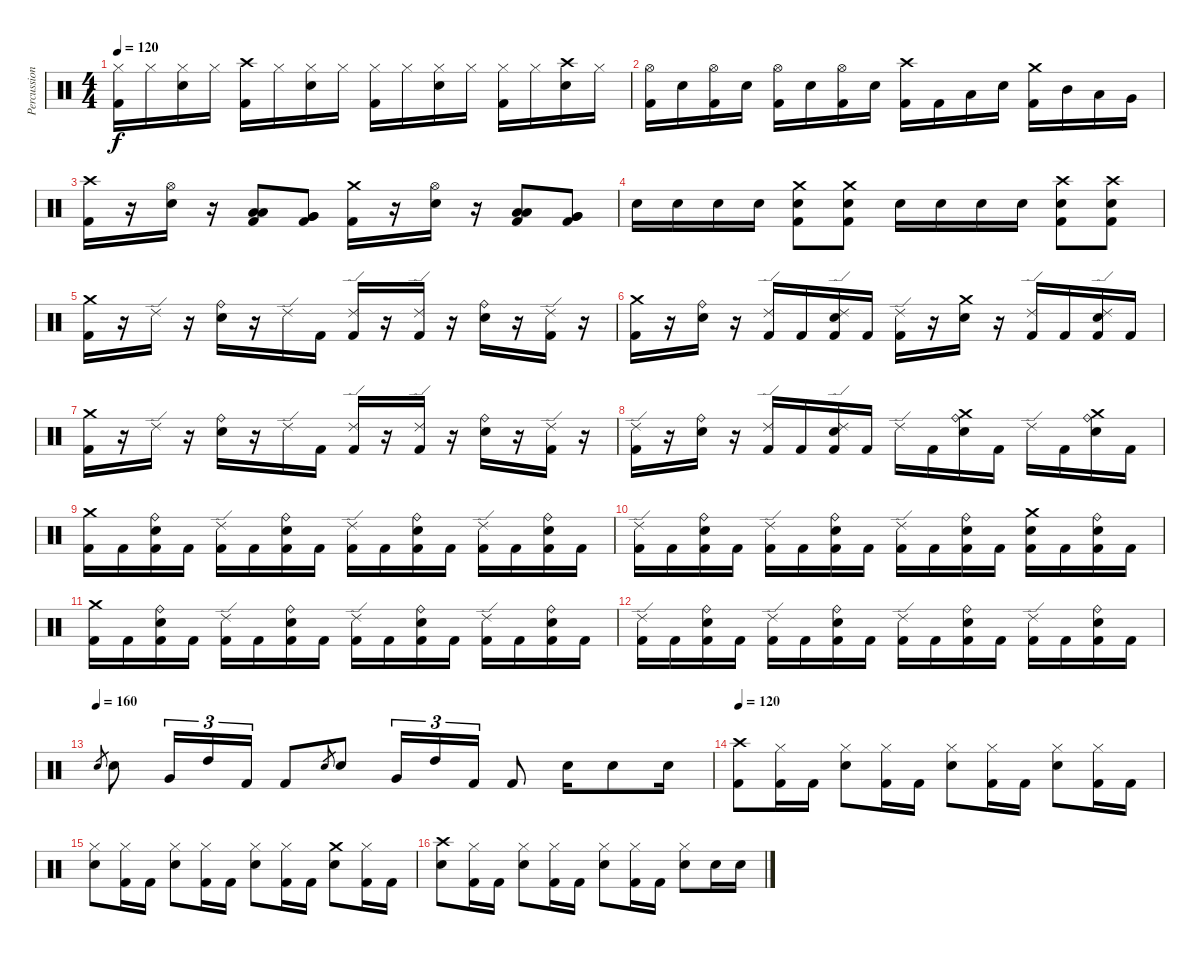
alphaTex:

\track ("Percussion" "Percussion") {instrument percussion}
\staff {score}
\articulation defaults
\ts (4 4)
\tempo 120
\clef neutral
\ks c
("Hi-Hat (closed)" "Kick (hit) 2").16{dy f} "Hi-Hat (closed)".16 ("Hi-Hat (closed)" "Snare (hit) 2").16 "Hi-Hat (closed)".16 ("Crash high (hit)" "Kick (hit) 2").16 "Hi-Hat (closed)".16 ("Hi-Hat (closed)" "Snare (hit) 2").16 "Hi-Hat (closed)".16 ("Hi-Hat (closed)" "Kick (hit) 2").16 "Hi-Hat (closed)".16 ("Hi-Hat (closed)" "Snare (hit) 2").16 "Hi-Hat (closed)".16 ("Hi-Hat (closed)" "Kick (hit) 2").16 "Hi-Hat (closed)".16 ("Crash high (hit)" "Snare (hit) 2").16 "Hi-Hat (closed)".16 |
("Hi-Hat (open)" "Kick (hit) 2").16 "Snare (hit) 2".16 ("Hi-Hat (open)" "Kick (hit) 2").16 "Snare (hit) 2".16 ("Hi-Hat (open)" "Kick (hit) 2").16 "Snare (hit) 2".16 ("Hi-Hat (open)" "Kick (hit) 2").16 "Snare (hit) 2".16 ("Crash high (hit)" "Kick (hit) 2").16 "Kick (hit) 2".16 "Low Tom (hit)".16 "Snare (hit) 2".16 ("Crash medium (hit)" "Kick (hit) 2").16 "Mid Tom (hit)".16 "Low Tom (hit)".16 "Very Low Tom (hit)".16 |
("Crash high (hit)" "Kick (hit) 2").16 r.16 ("Hi-Hat (open)" "Snare (hit) 2").16 r.16 ("Low Tom (hit)" "Low Tom (hit)" "Kick (hit) 2").8 ("Very Low Tom (hit)" "Very Low Tom (hit)" "Kick (hit) 2").8 ("Crash medium (hit)" "Kick (hit) 2").16 r.16 ("Hi-Hat (open)" "Snare (hit) 2").16 r.16 ("Low Tom (hit)" "Low Tom (hit)" "Kick (hit) 2").8 ("Very Low Tom (hit)" "Very Low Tom (hit)" "Kick (hit) 2").8 |
"Snare (hit) 2".16 "Snare (hit) 2".16 "Snare (hit) 2".16 "Snare (hit) 2".16 ("Crash medium (hit)" "Snare (hit) 2" "Kick (hit) 2").8 ("Crash medium (hit)" "Snare (hit) 2" "Kick (hit) 2").8 "Snare (hit) 2".16 "Snare (hit) 2".16 "Snare (hit) 2".16 "Snare (hit) 2".16 ("Crash high (hit)" "Snare (hit) 2" "Kick (hit) 2").8 ("Crash high (hit)" "Snare (hit) 2" "Kick (hit) 2").8 |
("Crash medium (hit)" "Kick (hit) 2").16 r.16 "Ride (edge) 2".16 r.16 ("Ride (bell)" "Snare (hit) 2").16 r.16 "Ride (edge) 2".16 "Kick (hit) 2".16 ("Ride (edge) 2" "Kick (hit) 2").16 r.16 ("Ride (edge) 2" "Kick (hit) 2").16 r.16 ("Ride (bell)" "Snare (hit) 2").16 r.16 ("Ride (edge) 2" "Kick (hit) 2").16 r.16 |
("Crash medium (hit)" "Kick (hit) 2").16 r.16 ("Ride (bell)" "Snare (hit) 2").16 r.16 ("Ride (edge) 2" "Kick (hit) 2").16 "Kick (hit) 2".16 ("Ride (edge) 2" "Snare (hit) 2" "Kick (hit) 2").16 "Kick (hit) 2".16 ("Ride (edge) 2" "Kick (hit) 2").16 r.16 ("Crash medium (hit)" "Snare (hit) 2").16 r.16 ("Ride (edge) 2" "Kick (hit) 2").16 "Kick (hit) 2".16 ("Ride (edge) 2" "Snare (hit) 2" "Kick (hit) 2").16 "Kick (hit) 2".16 |
("Crash medium (hit)" "Kick (hit) 2").16 r.16 "Ride (edge) 2".16 r.16 ("Ride (bell)" "Snare (hit) 2").16 r.16 "Ride (edge) 2".16 "Kick (hit) 2".16 ("Ride (edge) 2" "Kick (hit) 2").16 r.16 ("Ride (edge) 2" "Kick (hit) 2").16 r.16 ("Ride (bell)" "Snare (hit) 2").16 r.16 ("Ride (edge) 2" "Kick (hit) 2").16 r.16 |
("Ride (edge) 2" "Kick (hit) 2").16 r.16 ("Ride (bell)" "Snare (hit) 2").16 r.16 ("Ride (edge) 2" "Kick (hit) 2").16 "Kick (hit) 2".16 ("Ride (edge) 2" "Snare (hit) 2" "Kick (hit) 2").16 "Kick (hit) 2".16 "Ride (edge) 2".16 "Kick (hit) 2".16 ("Crash medium (hit)" "Ride (bell)" "Snare (hit) 2").16 "Kick (hit) 2".16 "Ride (edge) 2".16 "Kick (hit) 2".16 ("Crash medium (hit)" "Ride (bell)" "Snare (hit) 2").16 "Kick (hit) 2".16 |
("Crash medium (hit)" "Kick (hit) 2").16 "Kick (hit) 2".16 ("Ride (bell)" "Snare (hit) 2" "Kick (hit) 2").16 "Kick (hit) 2".16 ("Ride (edge) 2" "Kick (hit) 2").16 "Kick (hit) 2".16 ("Ride (bell)" "Snare (hit) 2" "Kick (hit) 2").16 "Kick (hit) 2".16 ("Ride (edge) 2" "Kick (hit) 2").16 "Kick (hit) 2".16 ("Ride (bell)" "Snare (hit) 2" "Kick (hit) 2").16 "Kick (hit) 2".16 ("Ride (edge) 2" "Kick (hit) 2").16 "Kick (hit) 2".16 ("Ride (bell)" "Snare (hit) 2" "Kick (hit) 2").16 "Kick (hit) 2".16 |
("Ride (edge) 2" "Kick (hit) 2").16 "Kick (hit) 2".16 ("Ride (bell)" "Snare (hit) 2" "Kick (hit) 2").16 "Kick (hit) 2".16 ("Ride (edge) 2" "Kick (hit) 2").16 "Kick (hit) 2".16 ("Ride (bell)" "Snare (hit) 2" "Kick (hit) 2").16 "Kick (hit) 2".16 ("Ride (edge) 2" "Kick (hit) 2").16 "Kick (hit) 2".16 ("Ride (bell)" "Snare (hit) 2" "Kick (hit) 2").16 "Kick (hit) 2".16 ("Crash medium (hit)" "Snare (hit) 2" "Kick (hit) 2").16 "Kick (hit) 2".16 ("Ride (bell)" "Snare (hit) 2" "Kick (hit) 2").16 "Kick (hit) 2".16 |
("Crash medium (hit)" "Kick (hit) 2").16 "Kick (hit) 2".16 ("Ride (bell)" "Snare (hit) 2" "Kick (hit) 2").16 "Kick (hit) 2".16 ("Ride (edge) 2" "Kick (hit) 2").16 "Kick (hit) 2".16 ("Ride (bell)" "Snare (hit) 2" "Kick (hit) 2").16 "Kick (hit) 2".16 ("Ride (edge) 2" "Kick (hit) 2").16 "Kick (hit) 2".16 ("Ride (bell)" "Snare (hit) 2" "Kick (hit) 2").16 "Kick (hit) 2".16 ("Ride (edge) 2" "Kick (hit) 2").16 "Kick (hit) 2".16 ("Ride (bell)" "Snare (hit) 2" "Kick (hit) 2").16 "Kick (hit) 2".16 |
("Ride (edge) 2" "Kick (hit) 2").16 "Kick (hit) 2".16 ("Ride (bell)" "Snare (hit) 2" "Kick (hit) 2").16 "Kick (hit) 2".16 ("Ride (edge) 2" "Kick (hit) 2").16 "Kick (hit) 2".16 ("Ride (bell)" "Snare (hit) 2" "Kick (hit) 2").16 "Kick (hit) 2".16 ("Ride (edge) 2" "Kick (hit) 2").16 "Kick (hit) 2".16 ("Ride (bell)" "Snare (hit) 2" "Kick (hit) 2").16 "Kick (hit) 2".16 ("Ride (edge) 2" "Kick (hit) 2").16 "Kick (hit) 2".16 ("Ride (bell)" "Snare (hit) 2" "Kick (hit) 2").16 "Kick (hit) 2".16 |
\tempo (160)
"Snare (hit) 2".8{gr} "Snare (hit) 2".8 "Very Low Tom (hit)".16{tu (3 2)} "High Tom (hit)".16{tu (3 2)} "Kick (hit) 2".16{tu (3 2)} "Kick (hit) 2".8 "Snare (hit) 2".8{gr} "Snare (hit) 2".8 "Very Low Tom (hit)".16{tu (3 2)} "High Tom (hit)".16{tu (3 2)} "Kick (hit) 2".16{tu (3 2)} "Kick (hit) 2".8 "Snare (hit) 2".16 "Snare (hit) 2".8 "Snare (hit) 2".16 |
\tempo 120
("Kick (hit) 2" "Crash high (hit)").8 ("Kick (hit) 2" "Hi-Hat (closed)").16 "Kick (hit) 2".16 ("Snare (hit) 2" "Hi-Hat (closed)").8 ("Kick (hit) 2" "Hi-Hat (closed)").16 "Kick (hit) 2".16 ("Snare (hit) 2" "Hi-Hat (closed)").8 ("Kick (hit) 2" "Hi-Hat (closed)").16 "Kick (hit) 2".16 ("Snare (hit) 2" "Hi-Hat (closed)").8 ("Kick (hit) 2" "Hi-Hat (closed)").16 "Kick (hit) 2".16 |
("Snare (hit) 2" "Hi-Hat (closed)").8 ("Kick (hit) 2" "Hi-Hat (closed)").16 "Kick (hit) 2".16 ("Snare (hit) 2" "Hi-Hat (closed)").8 ("Kick (hit) 2" "Hi-Hat (closed)").16 "Kick (hit) 2".16 ("Snare (hit) 2" "Hi-Hat (closed)").8 ("Kick (hit) 2" "Hi-Hat (closed)").16 "Kick (hit) 2".16 ("Snare (hit) 2" "Crash medium (hit)").8 ("Kick (hit) 2" "Hi-Hat (closed)").16 "Kick (hit) 2".16 |
("Snare (hit) 2" "Crash high (hit)").8 ("Kick (hit) 2" "Hi-Hat (closed)").16 "Kick (hit) 2".16 ("Snare (hit) 2" "Hi-Hat (closed)").8 ("Kick (hit) 2" "Hi-Hat (closed)").16 "Kick (hit) 2".16 ("Snare (hit) 2" "Hi-Hat (closed)").8 ("Kick (hit) 2" "Hi-Hat (closed)").16 "Kick (hit) 2".16 ("Snare (hit) 2" "Hi-Hat (closed)").8 "Snare (hit) 2".16 "Snare (hit) 2".16
